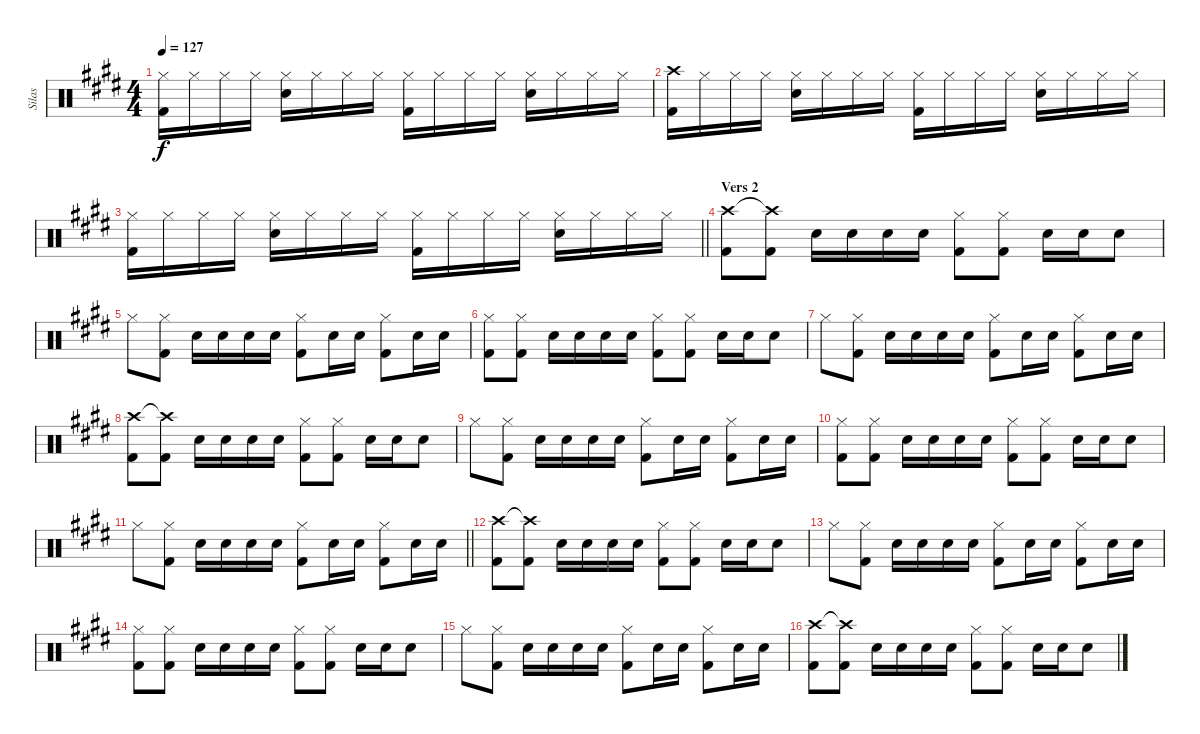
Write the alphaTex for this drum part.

\track ("Silas" "Silas") {instrument percussion}
\staff {score}
\articulation defaults
\ts (4 4)
\tempo 127
\clef neutral
\ks e
("Hi-Hat (closed)" "Kick (hit) 2").16{dy f} "Hi-Hat (closed)".16 "Hi-Hat (closed)".16 "Hi-Hat (closed)".16 ("Hi-Hat (closed)" "Snare (hit) 2").16 "Hi-Hat (closed)".16 "Hi-Hat (closed)".16 "Hi-Hat (closed)".16 ("Hi-Hat (closed)" "Kick (hit) 2").16 "Hi-Hat (closed)".16 "Hi-Hat (closed)".16 "Hi-Hat (closed)".16 ("Hi-Hat (closed)" "Snare (hit) 2").16 "Hi-Hat (closed)".16 "Hi-Hat (closed)".16 "Hi-Hat (closed)".16 |
("Crash high (hit)" "Kick (hit) 2").16 "Hi-Hat (closed)".16 "Hi-Hat (closed)".16 "Hi-Hat (closed)".16 ("Hi-Hat (closed)" "Snare (hit) 2").16 "Hi-Hat (closed)".16 "Hi-Hat (closed)".16 "Hi-Hat (closed)".16 ("Hi-Hat (closed)" "Kick (hit) 2").16 "Hi-Hat (closed)".16 "Hi-Hat (closed)".16 "Hi-Hat (closed)".16 ("Hi-Hat (closed)" "Snare (hit) 2").16 "Hi-Hat (closed)".16 "Hi-Hat (closed)".16 "Hi-Hat (closed)".16 |
\barLineRight lightlight
("Hi-Hat (closed)" "Kick (hit) 2").16 "Hi-Hat (closed)".16 "Hi-Hat (closed)".16 "Hi-Hat (closed)".16 ("Hi-Hat (closed)" "Snare (hit) 2").16 "Hi-Hat (closed)".16 "Hi-Hat (closed)".16 "Hi-Hat (closed)".16 ("Hi-Hat (closed)" "Kick (hit) 2").16 "Hi-Hat (closed)".16 "Hi-Hat (closed)".16 "Hi-Hat (closed)".16 ("Hi-Hat (closed)" "Snare (hit) 2").16 "Hi-Hat (closed)".16 "Hi-Hat (closed)".16 "Hi-Hat (closed)".16 |
\section ("" "Vers 2")
("Crash high (hit)" "Kick (hit) 2").8 ("Crash high (hit)"{t} "Kick (hit) 2").8 "Snare (hit) 2".16 "Snare (hit) 2".16 "Snare (hit) 2".16 "Snare (hit) 2".16 ("Hi-Hat (closed)" "Kick (hit) 2").8 ("Hi-Hat (closed)" "Kick (hit) 2").8 "Snare (hit) 2".16 "Snare (hit) 2".16 "Snare (hit) 2".8 |
"Hi-Hat (closed)".8 ("Hi-Hat (closed)" "Kick (hit) 2").8 "Snare (hit) 2".16 "Snare (hit) 2".16 "Snare (hit) 2".16 "Snare (hit) 2".16 ("Hi-Hat (closed)" "Kick (hit) 2").8 "Snare (hit) 2".16 "Snare (hit) 2".16 ("Hi-Hat (closed)" "Kick (hit) 2").8 "Snare (hit) 2".16 "Snare (hit) 2".16 |
("Hi-Hat (closed)" "Kick (hit) 2").8 ("Hi-Hat (closed)" "Kick (hit) 2").8 "Snare (hit) 2".16 "Snare (hit) 2".16 "Snare (hit) 2".16 "Snare (hit) 2".16 ("Hi-Hat (closed)" "Kick (hit) 2").8 ("Hi-Hat (closed)" "Kick (hit) 2").8 "Snare (hit) 2".16 "Snare (hit) 2".16 "Snare (hit) 2".8 |
"Hi-Hat (closed)".8 ("Hi-Hat (closed)" "Kick (hit) 2").8 "Snare (hit) 2".16 "Snare (hit) 2".16 "Snare (hit) 2".16 "Snare (hit) 2".16 ("Hi-Hat (closed)" "Kick (hit) 2").8 "Snare (hit) 2".16 "Snare (hit) 2".16 ("Hi-Hat (closed)" "Kick (hit) 2").8 "Snare (hit) 2".16 "Snare (hit) 2".16 |
("Crash high (hit)" "Kick (hit) 2").8 ("Crash high (hit)"{t} "Kick (hit) 2").8 "Snare (hit) 2".16 "Snare (hit) 2".16 "Snare (hit) 2".16 "Snare (hit) 2".16 ("Hi-Hat (closed)" "Kick (hit) 2").8 ("Hi-Hat (closed)" "Kick (hit) 2").8 "Snare (hit) 2".16 "Snare (hit) 2".16 "Snare (hit) 2".8 |
"Hi-Hat (closed)".8 ("Hi-Hat (closed)" "Kick (hit) 2").8 "Snare (hit) 2".16 "Snare (hit) 2".16 "Snare (hit) 2".16 "Snare (hit) 2".16 ("Hi-Hat (closed)" "Kick (hit) 2").8 "Snare (hit) 2".16 "Snare (hit) 2".16 ("Hi-Hat (closed)" "Kick (hit) 2").8 "Snare (hit) 2".16 "Snare (hit) 2".16 |
("Hi-Hat (closed)" "Kick (hit) 2").8 ("Hi-Hat (closed)" "Kick (hit) 2").8 "Snare (hit) 2".16 "Snare (hit) 2".16 "Snare (hit) 2".16 "Snare (hit) 2".16 ("Hi-Hat (closed)" "Kick (hit) 2").8 ("Hi-Hat (closed)" "Kick (hit) 2").8 "Snare (hit) 2".16 "Snare (hit) 2".16 "Snare (hit) 2".8 |
\barLineRight lightlight "Hi-Hat (closed)".8
("Hi-Hat (closed)" "Kick (hit) 2").8 "Snare (hit) 2".16 "Snare (hit) 2".16 "Snare (hit) 2".16 "Snare (hit) 2".16 ("Hi-Hat (closed)" "Kick (hit) 2").8 "Snare (hit) 2".16 "Snare (hit) 2".16 ("Hi-Hat (closed)" "Kick (hit) 2").8 "Snare (hit) 2".16 "Snare (hit) 2".16 |
("Crash high (hit)" "Kick (hit) 2").8 ("Crash high (hit)"{t} "Kick (hit) 2").8 "Snare (hit) 2".16 "Snare (hit) 2".16 "Snare (hit) 2".16 "Snare (hit) 2".16 ("Hi-Hat (closed)" "Kick (hit) 2").8 ("Hi-Hat (closed)" "Kick (hit) 2").8 "Snare (hit) 2".16 "Snare (hit) 2".16 "Snare (hit) 2".8 |
"Hi-Hat (closed)".8 ("Hi-Hat (closed)" "Kick (hit) 2").8 "Snare (hit) 2".16 "Snare (hit) 2".16 "Snare (hit) 2".16 "Snare (hit) 2".16 ("Hi-Hat (closed)" "Kick (hit) 2").8 "Snare (hit) 2".16 "Snare (hit) 2".16 ("Hi-Hat (closed)" "Kick (hit) 2").8 "Snare (hit) 2".16 "Snare (hit) 2".16 |
("Hi-Hat (closed)" "Kick (hit) 2").8 ("Hi-Hat (closed)" "Kick (hit) 2").8 "Snare (hit) 2".16 "Snare (hit) 2".16 "Snare (hit) 2".16 "Snare (hit) 2".16 ("Hi-Hat (closed)" "Kick (hit) 2").8 ("Hi-Hat (closed)" "Kick (hit) 2").8 "Snare (hit) 2".16 "Snare (hit) 2".16 "Snare (hit) 2".8 |
"Hi-Hat (closed)".8 ("Hi-Hat (closed)" "Kick (hit) 2").8 "Snare (hit) 2".16 "Snare (hit) 2".16 "Snare (hit) 2".16 "Snare (hit) 2".16 ("Hi-Hat (closed)" "Kick (hit) 2").8 "Snare (hit) 2".16 "Snare (hit) 2".16 ("Hi-Hat (closed)" "Kick (hit) 2").8 "Snare (hit) 2".16 "Snare (hit) 2".16 |
("Crash high (hit)" "Kick (hit) 2").8 ("Crash high (hit)"{t} "Kick (hit) 2").8 "Snare (hit) 2".16 "Snare (hit) 2".16 "Snare (hit) 2".16 "Snare (hit) 2".16 ("Hi-Hat (closed)" "Kick (hit) 2").8 ("Hi-Hat (closed)" "Kick (hit) 2").8 "Snare (hit) 2".16 "Snare (hit) 2".16 "Snare (hit) 2".8
